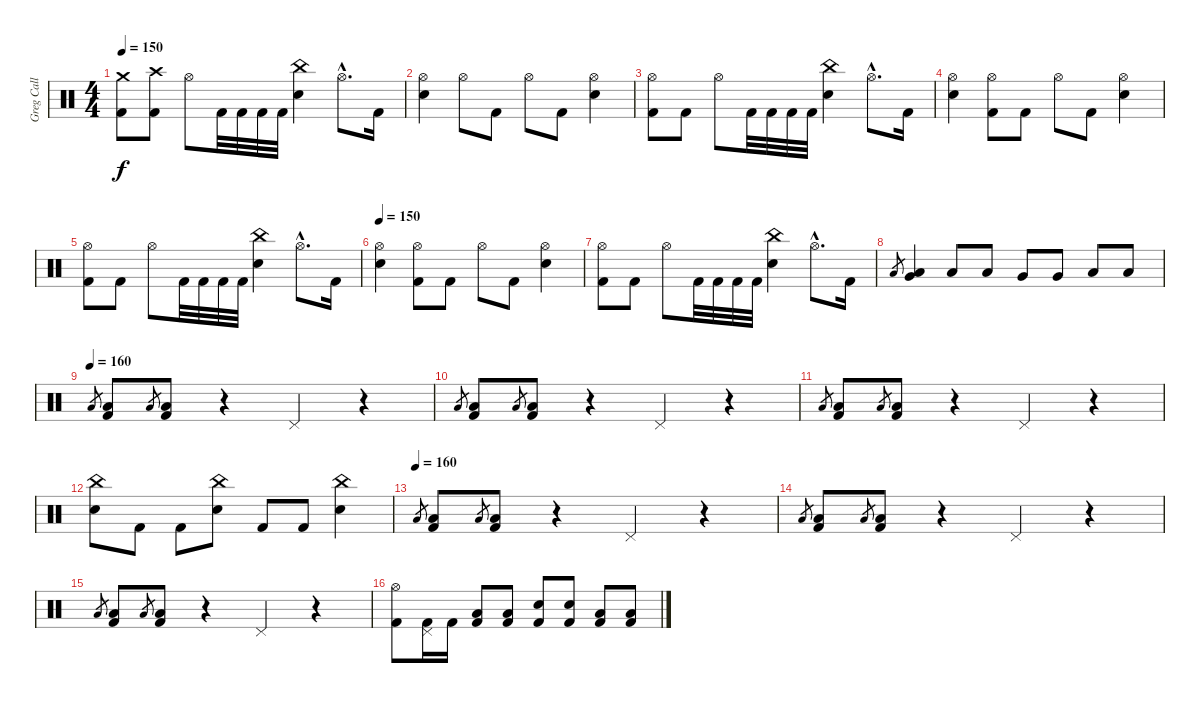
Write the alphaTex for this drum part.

\track ("Greg Call" "Greg Call") {instrument percussion}
\staff {score}
\articulation defaults
\ts (4 4)
\tempo 150
\clef neutral
\ks c
("Crash medium (hit)" "Kick (hit) 2").8{dy f} ("Crash high (hit)" "Kick (hit) 2").8 "Hi-Hat (open)".8 "Kick (hit) 2".32 "Kick (hit) 2".32 "Kick (hit) 2".32 "Kick (hit) 2".32 ("China (hit)" "Snare (hit) 2").4 "Hi-Hat (open)"{hac}.8{d} "Kick (hit) 2".16 |
("Hi-Hat (open)" "Snare (hit) 2").4 "Hi-Hat (open)".8 "Kick (hit) 2".8 "Hi-Hat (open)".8 "Kick (hit) 2".8 ("Hi-Hat (open)" "Snare (hit) 2").4 |
("Hi-Hat (open)" "Kick (hit) 2").8 "Kick (hit) 2".8 "Hi-Hat (open)".8 "Kick (hit) 2".32 "Kick (hit) 2".32 "Kick (hit) 2".32 "Kick (hit) 2".32 ("China (hit)" "Snare (hit) 2").4 "Hi-Hat (open)"{hac}.8{d} "Kick (hit) 2".16 |
("Hi-Hat (open)" "Snare (hit) 2").4 ("Hi-Hat (open)" "Kick (hit) 2").8 "Kick (hit) 2".8 "Hi-Hat (open)".8 "Kick (hit) 2".8 ("Hi-Hat (open)" "Snare (hit) 2").4 |
("Hi-Hat (open)" "Kick (hit) 2").8 "Kick (hit) 2".8 "Hi-Hat (open)".8 "Kick (hit) 2".32 "Kick (hit) 2".32 "Kick (hit) 2".32 "Kick (hit) 2".32 ("China (hit)" "Snare (hit) 2").4 "Hi-Hat (open)"{hac}.8{d} "Kick (hit) 2".16 |
\tempo 150
("Hi-Hat (open)" "Snare (hit) 2").4 ("Hi-Hat (open)" "Kick (hit) 2").8 "Kick (hit) 2".8 "Hi-Hat (open)".8 "Kick (hit) 2".8 ("Hi-Hat (open)" "Snare (hit) 2").4 |
("Hi-Hat (open)" "Kick (hit) 2").8 "Kick (hit) 2".8 "Hi-Hat (open)".8 "Kick (hit) 2".32 "Kick (hit) 2".32 "Kick (hit) 2".32 "Kick (hit) 2".32 ("China (hit)" "Snare (hit) 2").4 "Hi-Hat (open)"{hac}.8{d} "Kick (hit) 2".16 |
"Low Tom (hit)".8{gr} ("Low Tom (hit)" "Very Low Tom (hit)").4 "Low Tom (hit)".8 "Low Tom (hit)".8 "Very Low Tom (hit)".8 "Very Low Tom (hit)".8 "Low Floor Tom (hit)".8 "Low Floor Tom (hit)".8 |
\tempo (160)
"Low Floor Tom (hit)".8{gr} ("Low Floor Tom (hit)" "Kick (hit) 2").8{volume 16} "Low Floor Tom (hit)".8{gr} ("Low Floor Tom (hit)" "Kick (hit) 2").8 r.4 "Pedal Hi-Hat (hit)".4 r.4 |
"Low Floor Tom (hit)".8{gr} ("Low Floor Tom (hit)" "Kick (hit) 2").8{volume 16} "Low Floor Tom (hit)".8{gr} ("Low Floor Tom (hit)" "Kick (hit) 2").8 r.4 "Pedal Hi-Hat (hit)".4 r.4 |
"Low Floor Tom (hit)".8{gr} ("Low Floor Tom (hit)" "Kick (hit) 2").8{volume 16} "Low Floor Tom (hit)".8{gr} ("Low Floor Tom (hit)" "Kick (hit) 2").8 r.4 "Pedal Hi-Hat (hit)".4 r.4 |
("China (hit)" "Snare (hit) 2").8 "Kick (hit) 2".8 "Kick (hit) 2".8 ("China (hit)" "Snare (hit) 2").8 "Kick (hit) 2".8 "Kick (hit) 2".8 ("China (hit)" "Snare (hit) 2").4 |
\tempo (160)
"Low Floor Tom (hit)".8{gr} ("Low Floor Tom (hit)" "Kick (hit) 2").8{volume 16} "Low Floor Tom (hit)".8{gr} ("Low Floor Tom (hit)" "Kick (hit) 2").8 r.4 "Pedal Hi-Hat (hit)".4 r.4 |
"Low Floor Tom (hit)".8{gr} ("Low Floor Tom (hit)" "Kick (hit) 2").8{volume 16} "Low Floor Tom (hit)".8{gr} ("Low Floor Tom (hit)" "Kick (hit) 2").8 r.4 "Pedal Hi-Hat (hit)".4 r.4 |
"Low Floor Tom (hit)".8{gr} ("Low Floor Tom (hit)" "Kick (hit) 2").8{volume 16} "Low Floor Tom (hit)".8{gr} ("Low Floor Tom (hit)" "Kick (hit) 2").8 r.4 "Pedal Hi-Hat (hit)".4 r.4 |
("Hi-Hat (open)" "Kick (hit) 2").8 ("Pedal Hi-Hat (hit)" "Kick (hit) 2").16 "Kick (hit) 2".16 ("Low Tom (hit)" "Kick (hit) 2").8 ("Low Tom (hit)" "Kick (hit) 2").8 ("Snare (hit) 2" "Kick (hit) 2").8 ("Snare (hit) 2" "Kick (hit) 2").8 ("Low Floor Tom (hit)" "Kick (hit) 2").8 ("Low Floor Tom (hit)" "Kick (hit) 2").8
